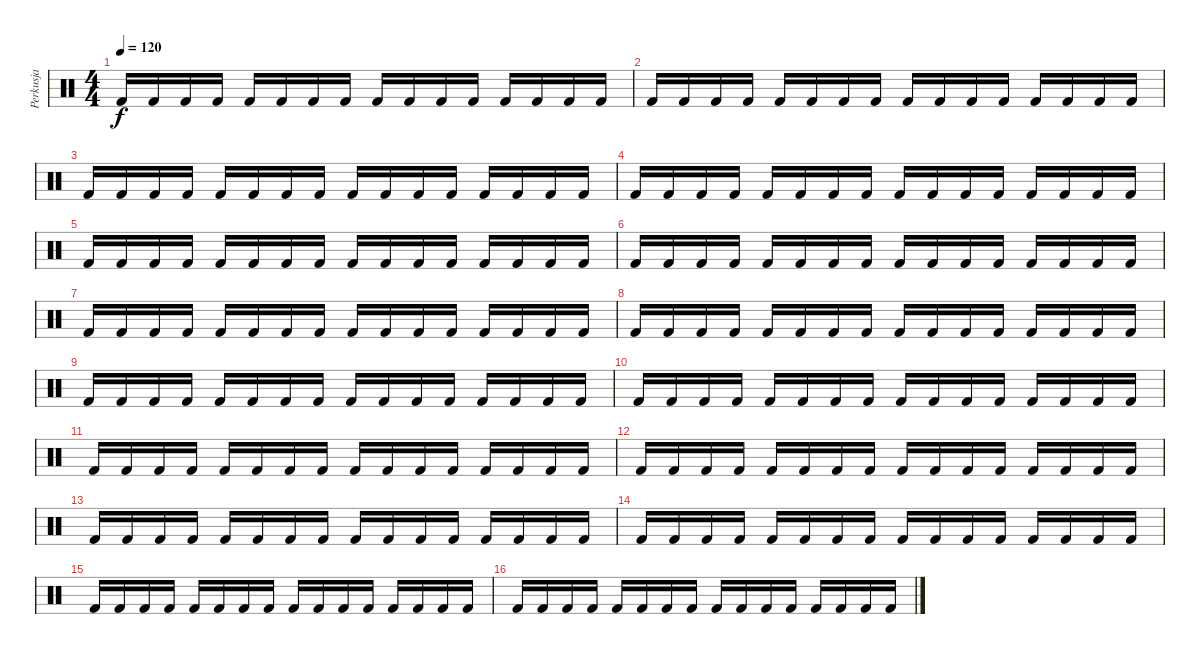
\track ("Perkusja" "Perkusja") {instrument percussion}
\staff {score}
\articulation defaults
\ts (4 4)
\tempo 120
\clef neutral
\ks c "Kick (hit) 2".16{dy f} "Kick (hit) 2".16 "Kick (hit) 2".16 "Kick (hit) 2".16 "Kick (hit) 2".16 "Kick (hit) 2".16 "Kick (hit) 2".16 "Kick (hit) 2".16 "Kick (hit) 2".16 "Kick (hit) 2".16 "Kick (hit) 2".16 "Kick (hit) 2".16 "Kick (hit) 2".16 "Kick (hit) 2".16 "Kick (hit) 2".16 "Kick (hit) 2".16
|
"Kick (hit) 2".16 "Kick (hit) 2".16 "Kick (hit) 2".16 "Kick (hit) 2".16 "Kick (hit) 2".16 "Kick (hit) 2".16 "Kick (hit) 2".16 "Kick (hit) 2".16 "Kick (hit) 2".16 "Kick (hit) 2".16 "Kick (hit) 2".16 "Kick (hit) 2".16 "Kick (hit) 2".16 "Kick (hit) 2".16 "Kick (hit) 2".16 "Kick (hit) 2".16 |
"Kick (hit) 2".16 "Kick (hit) 2".16 "Kick (hit) 2".16 "Kick (hit) 2".16 "Kick (hit) 2".16 "Kick (hit) 2".16 "Kick (hit) 2".16 "Kick (hit) 2".16 "Kick (hit) 2".16 "Kick (hit) 2".16 "Kick (hit) 2".16 "Kick (hit) 2".16 "Kick (hit) 2".16 "Kick (hit) 2".16 "Kick (hit) 2".16 "Kick (hit) 2".16 |
"Kick (hit) 2".16 "Kick (hit) 2".16 "Kick (hit) 2".16 "Kick (hit) 2".16 "Kick (hit) 2".16 "Kick (hit) 2".16 "Kick (hit) 2".16 "Kick (hit) 2".16 "Kick (hit) 2".16 "Kick (hit) 2".16 "Kick (hit) 2".16 "Kick (hit) 2".16 "Kick (hit) 2".16 "Kick (hit) 2".16 "Kick (hit) 2".16 "Kick (hit) 2".16 |
"Kick (hit) 2".16 "Kick (hit) 2".16 "Kick (hit) 2".16 "Kick (hit) 2".16 "Kick (hit) 2".16 "Kick (hit) 2".16 "Kick (hit) 2".16 "Kick (hit) 2".16 "Kick (hit) 2".16 "Kick (hit) 2".16 "Kick (hit) 2".16 "Kick (hit) 2".16 "Kick (hit) 2".16 "Kick (hit) 2".16 "Kick (hit) 2".16 "Kick (hit) 2".16 |
"Kick (hit) 2".16 "Kick (hit) 2".16 "Kick (hit) 2".16 "Kick (hit) 2".16 "Kick (hit) 2".16 "Kick (hit) 2".16 "Kick (hit) 2".16 "Kick (hit) 2".16 "Kick (hit) 2".16 "Kick (hit) 2".16 "Kick (hit) 2".16 "Kick (hit) 2".16 "Kick (hit) 2".16 "Kick (hit) 2".16 "Kick (hit) 2".16 "Kick (hit) 2".16 |
"Kick (hit) 2".16 "Kick (hit) 2".16 "Kick (hit) 2".16 "Kick (hit) 2".16 "Kick (hit) 2".16 "Kick (hit) 2".16 "Kick (hit) 2".16 "Kick (hit) 2".16 "Kick (hit) 2".16 "Kick (hit) 2".16 "Kick (hit) 2".16 "Kick (hit) 2".16 "Kick (hit) 2".16 "Kick (hit) 2".16 "Kick (hit) 2".16 "Kick (hit) 2".16 |
"Kick (hit) 2".16 "Kick (hit) 2".16 "Kick (hit) 2".16 "Kick (hit) 2".16 "Kick (hit) 2".16 "Kick (hit) 2".16 "Kick (hit) 2".16 "Kick (hit) 2".16 "Kick (hit) 2".16 "Kick (hit) 2".16 "Kick (hit) 2".16 "Kick (hit) 2".16 "Kick (hit) 2".16 "Kick (hit) 2".16 "Kick (hit) 2".16 "Kick (hit) 2".16 |
"Kick (hit) 2".16 "Kick (hit) 2".16 "Kick (hit) 2".16 "Kick (hit) 2".16 "Kick (hit) 2".16 "Kick (hit) 2".16 "Kick (hit) 2".16 "Kick (hit) 2".16 "Kick (hit) 2".16 "Kick (hit) 2".16 "Kick (hit) 2".16 "Kick (hit) 2".16 "Kick (hit) 2".16 "Kick (hit) 2".16 "Kick (hit) 2".16 "Kick (hit) 2".16 |
"Kick (hit) 2".16 "Kick (hit) 2".16 "Kick (hit) 2".16 "Kick (hit) 2".16 "Kick (hit) 2".16 "Kick (hit) 2".16 "Kick (hit) 2".16 "Kick (hit) 2".16 "Kick (hit) 2".16 "Kick (hit) 2".16 "Kick (hit) 2".16 "Kick (hit) 2".16 "Kick (hit) 2".16 "Kick (hit) 2".16 "Kick (hit) 2".16 "Kick (hit) 2".16 |
"Kick (hit) 2".16 "Kick (hit) 2".16 "Kick (hit) 2".16 "Kick (hit) 2".16 "Kick (hit) 2".16 "Kick (hit) 2".16 "Kick (hit) 2".16 "Kick (hit) 2".16 "Kick (hit) 2".16 "Kick (hit) 2".16 "Kick (hit) 2".16 "Kick (hit) 2".16 "Kick (hit) 2".16 "Kick (hit) 2".16 "Kick (hit) 2".16 "Kick (hit) 2".16 |
"Kick (hit) 2".16 "Kick (hit) 2".16 "Kick (hit) 2".16 "Kick (hit) 2".16 "Kick (hit) 2".16 "Kick (hit) 2".16 "Kick (hit) 2".16 "Kick (hit) 2".16 "Kick (hit) 2".16 "Kick (hit) 2".16 "Kick (hit) 2".16 "Kick (hit) 2".16 "Kick (hit) 2".16 "Kick (hit) 2".16 "Kick (hit) 2".16 "Kick (hit) 2".16 |
"Kick (hit) 2".16 "Kick (hit) 2".16 "Kick (hit) 2".16 "Kick (hit) 2".16 "Kick (hit) 2".16 "Kick (hit) 2".16 "Kick (hit) 2".16 "Kick (hit) 2".16 "Kick (hit) 2".16 "Kick (hit) 2".16 "Kick (hit) 2".16 "Kick (hit) 2".16 "Kick (hit) 2".16 "Kick (hit) 2".16 "Kick (hit) 2".16 "Kick (hit) 2".16 |
"Kick (hit) 2".16 "Kick (hit) 2".16 "Kick (hit) 2".16 "Kick (hit) 2".16 "Kick (hit) 2".16 "Kick (hit) 2".16 "Kick (hit) 2".16 "Kick (hit) 2".16 "Kick (hit) 2".16 "Kick (hit) 2".16 "Kick (hit) 2".16 "Kick (hit) 2".16 "Kick (hit) 2".16 "Kick (hit) 2".16 "Kick (hit) 2".16 "Kick (hit) 2".16 |
"Kick (hit) 2".16 "Kick (hit) 2".16 "Kick (hit) 2".16 "Kick (hit) 2".16 "Kick (hit) 2".16 "Kick (hit) 2".16 "Kick (hit) 2".16 "Kick (hit) 2".16 "Kick (hit) 2".16 "Kick (hit) 2".16 "Kick (hit) 2".16 "Kick (hit) 2".16 "Kick (hit) 2".16 "Kick (hit) 2".16 "Kick (hit) 2".16 "Kick (hit) 2".16 |
"Kick (hit) 2".16 "Kick (hit) 2".16 "Kick (hit) 2".16 "Kick (hit) 2".16 "Kick (hit) 2".16 "Kick (hit) 2".16 "Kick (hit) 2".16 "Kick (hit) 2".16 "Kick (hit) 2".16 "Kick (hit) 2".16 "Kick (hit) 2".16 "Kick (hit) 2".16 "Kick (hit) 2".16 "Kick (hit) 2".16 "Kick (hit) 2".16 "Kick (hit) 2".16
